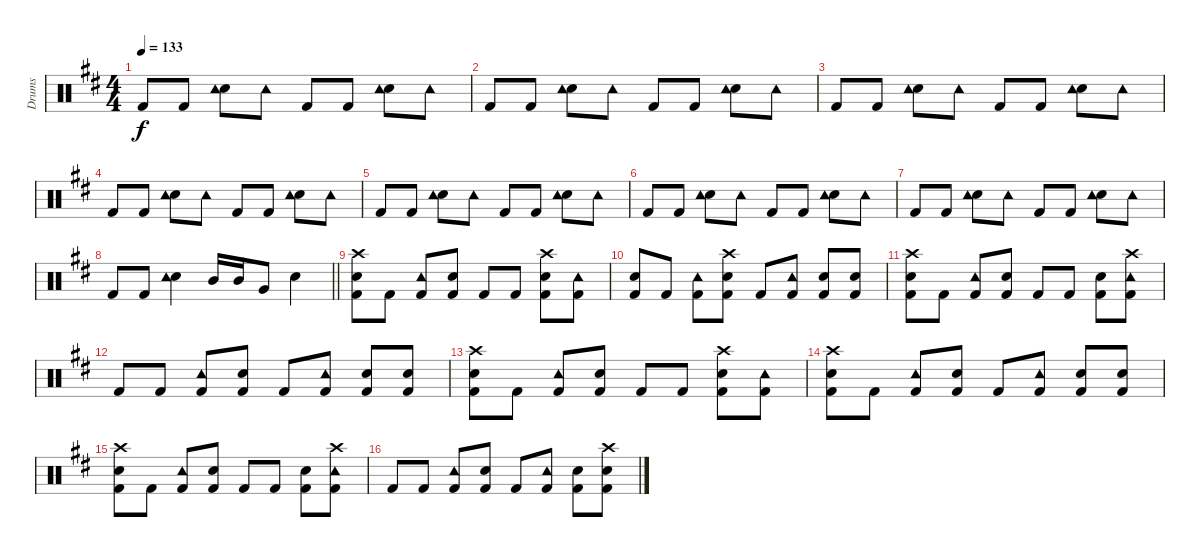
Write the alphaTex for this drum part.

\track ("Drums" "Drums") {instrument percussion}
\staff {score}
\articulation defaults
\ts (4 4)
\tempo 133
\clef neutral
\ks d "Kick (hit) 2".8{dy f} "Kick (hit) 2".8
("Snare (hit) 2" "Tambourine (hit)").8 "Tambourine (hit)".8 "Kick (hit) 2".8 "Kick (hit) 2".8 ("Snare (hit) 2" "Tambourine (hit)").8 "Tambourine (hit)".8 |
"Kick (hit) 2".8 "Kick (hit) 2".8 ("Snare (hit) 2" "Tambourine (hit)").8 "Tambourine (hit)".8 "Kick (hit) 2".8 "Kick (hit) 2".8 ("Snare (hit) 2" "Tambourine (hit)").8 "Tambourine (hit)".8 |
"Kick (hit) 2".8 "Kick (hit) 2".8 ("Snare (hit) 2" "Tambourine (hit)").8 "Tambourine (hit)".8 "Kick (hit) 2".8 "Kick (hit) 2".8 ("Snare (hit) 2" "Tambourine (hit)").8 "Tambourine (hit)".8 |
"Kick (hit) 2".8 "Kick (hit) 2".8 ("Snare (hit) 2" "Tambourine (hit)").8 "Tambourine (hit)".8 "Kick (hit) 2".8 "Kick (hit) 2".8 ("Snare (hit) 2" "Tambourine (hit)").8 "Tambourine (hit)".8 |
"Kick (hit) 2".8 "Kick (hit) 2".8 ("Snare (hit) 2" "Tambourine (hit)").8 "Tambourine (hit)".8 "Kick (hit) 2".8 "Kick (hit) 2".8 ("Snare (hit) 2" "Tambourine (hit)").8 "Tambourine (hit)".8 |
"Kick (hit) 2".8 "Kick (hit) 2".8 ("Snare (hit) 2" "Tambourine (hit)").8 "Tambourine (hit)".8 "Kick (hit) 2".8 "Kick (hit) 2".8 ("Snare (hit) 2" "Tambourine (hit)").8 "Tambourine (hit)".8 |
"Kick (hit) 2".8 "Kick (hit) 2".8 ("Snare (hit) 2" "Tambourine (hit)").8 "Tambourine (hit)".8 "Kick (hit) 2".8 "Kick (hit) 2".8 ("Snare (hit) 2" "Tambourine (hit)").8 "Tambourine (hit)".8 |
\barLineRight lightlight "Kick (hit) 2".8 "Kick (hit) 2".8
("Snare (hit) 2" "Tambourine (hit)").4 "Mid Tom (hit)".16 "Mid Tom (hit)".16 "Very Low Tom (hit)".8 "Snare (hit) 2".4 |
("Kick (hit) 2" "Crash high (hit)" "Snare (hit) 2").8 "Kick (hit) 2".8 ("Kick (hit) 2" "Tambourine (hit)").8 ("Kick (hit) 2" "Snare (hit) 2").8 "Kick (hit) 2".8 "Kick (hit) 2".8 ("Kick (hit) 2" "Snare (hit) 2" "Crash high (hit)").8 ("Kick (hit) 2" "Tambourine (hit)").8 |
("Kick (hit) 2" "Snare (hit) 2").8 "Kick (hit) 2".8 ("Kick (hit) 2" "Tambourine (hit)").8 ("Kick (hit) 2" "Snare (hit) 2" "Crash high (hit)").8 "Kick (hit) 2".8 ("Kick (hit) 2" "Tambourine (hit)").8 ("Kick (hit) 2" "Snare (hit) 2").8 ("Kick (hit) 2" "Snare (hit) 2").8 |
("Kick (hit) 2" "Crash high (hit)" "Snare (hit) 2").8 "Kick (hit) 2".8 ("Kick (hit) 2" "Tambourine (hit)").8 ("Kick (hit) 2" "Snare (hit) 2").8 "Kick (hit) 2".8 "Kick (hit) 2".8 ("Kick (hit) 2" "Snare (hit) 2").8 ("Kick (hit) 2" "Tambourine (hit)" "Crash high (hit)").8 |
"Kick (hit) 2".8 "Kick (hit) 2".8 ("Kick (hit) 2" "Tambourine (hit)").8 ("Kick (hit) 2" "Snare (hit) 2").8 "Kick (hit) 2".8 ("Kick (hit) 2" "Tambourine (hit)").8 ("Kick (hit) 2" "Snare (hit) 2").8 ("Kick (hit) 2" "Snare (hit) 2").8 |
("Kick (hit) 2" "Crash high (hit)" "Snare (hit) 2").8 "Kick (hit) 2".8 ("Kick (hit) 2" "Tambourine (hit)").8 ("Kick (hit) 2" "Snare (hit) 2").8 "Kick (hit) 2".8 "Kick (hit) 2".8 ("Kick (hit) 2" "Snare (hit) 2" "Crash high (hit)").8 ("Kick (hit) 2" "Tambourine (hit)").8 |
("Kick (hit) 2" "Snare (hit) 2" "Crash high (hit)").8 "Kick (hit) 2".8 ("Kick (hit) 2" "Tambourine (hit)").8 ("Kick (hit) 2" "Snare (hit) 2").8 "Kick (hit) 2".8 ("Kick (hit) 2" "Tambourine (hit)").8 ("Kick (hit) 2" "Snare (hit) 2").8 ("Kick (hit) 2" "Snare (hit) 2").8 |
("Kick (hit) 2" "Crash high (hit)" "Snare (hit) 2").8 "Kick (hit) 2".8 ("Kick (hit) 2" "Tambourine (hit)").8 ("Kick (hit) 2" "Snare (hit) 2").8 "Kick (hit) 2".8 "Kick (hit) 2".8 ("Kick (hit) 2" "Snare (hit) 2").8 ("Kick (hit) 2" "Tambourine (hit)" "Crash high (hit)").8 |
"Kick (hit) 2".8 "Kick (hit) 2".8 ("Kick (hit) 2" "Tambourine (hit)").8 ("Kick (hit) 2" "Snare (hit) 2").8 "Kick (hit) 2".8 ("Kick (hit) 2" "Tambourine (hit)").8 ("Kick (hit) 2" "Snare (hit) 2").8 ("Kick (hit) 2" "Snare (hit) 2" "Crash high (hit)").8
